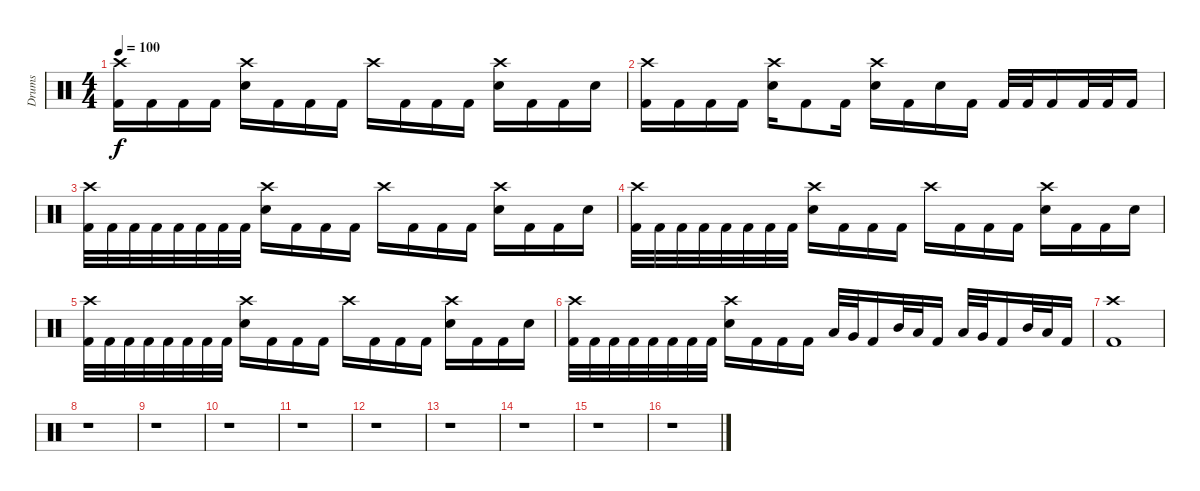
\track ("Drums" "Drums") {instrument percussion}
\staff {score}
\articulation defaults
\ts (4 4)
\tempo 100
\clef neutral
\ks c
("Crash high (hit)" "Kick (hit) 2").16{dy f} "Kick (hit) 2".16 "Kick (hit) 2".16 "Kick (hit) 2".16 ("Crash high (hit)" "Electric Snare (hit)").16 "Kick (hit) 2".16 "Kick (hit) 2".16 "Kick (hit) 2".16 "Crash high (hit)".16 "Kick (hit) 2".16 "Kick (hit) 2".16 "Kick (hit) 2".16 ("Crash high (hit)" "Electric Snare (hit)").16 "Kick (hit) 2".16 "Kick (hit) 2".16 "Electric Snare (hit)".16 |
("Crash high (hit)" "Kick (hit) 2").16 "Kick (hit) 2".16 "Kick (hit) 2".16 "Kick (hit) 2".16 ("Crash high (hit)" "Electric Snare (hit)").16 "Kick (hit) 2".8 "Kick (hit) 2".16 ("Crash high (hit)" "Electric Snare (hit)").16 "Kick (hit) 2".16 "Electric Snare (hit)".16 "Kick (hit) 2".16 "Kick (hit) 2".32 "Kick (hit) 2".32 "Kick (hit) 2".16 "Kick (hit) 2".32 "Kick (hit) 2".32 "Kick (hit) 2".16 |
("Crash high (hit)" "Kick (hit) 2").32 "Kick (hit) 2".32 "Kick (hit) 2".32 "Kick (hit) 2".32 "Kick (hit) 2".32 "Kick (hit) 2".32 "Kick (hit) 2".32 "Kick (hit) 2".32 ("Crash high (hit)" "Electric Snare (hit)").16 "Kick (hit) 2".16 "Kick (hit) 2".16 "Kick (hit) 2".16 "Crash high (hit)".16 "Kick (hit) 2".16 "Kick (hit) 2".16 "Kick (hit) 2".16 ("Crash high (hit)" "Electric Snare (hit)").16 "Kick (hit) 2".16 "Kick (hit) 2".16 "Electric Snare (hit)".16 |
("Crash high (hit)" "Kick (hit) 2").32 "Kick (hit) 2".32 "Kick (hit) 2".32 "Kick (hit) 2".32 "Kick (hit) 2".32 "Kick (hit) 2".32 "Kick (hit) 2".32 "Kick (hit) 2".32 ("Crash high (hit)" "Electric Snare (hit)").16 "Kick (hit) 2".16 "Kick (hit) 2".16 "Kick (hit) 2".16 "Crash high (hit)".16 "Kick (hit) 2".16 "Kick (hit) 2".16 "Kick (hit) 2".16 ("Crash high (hit)" "Electric Snare (hit)").16 "Kick (hit) 2".16 "Kick (hit) 2".16 "Electric Snare (hit)".16 |
("Crash high (hit)" "Kick (hit) 2").32 "Kick (hit) 2".32 "Kick (hit) 2".32 "Kick (hit) 2".32 "Kick (hit) 2".32 "Kick (hit) 2".32 "Kick (hit) 2".32 "Kick (hit) 2".32 ("Crash high (hit)" "Electric Snare (hit)").16 "Kick (hit) 2".16 "Kick (hit) 2".16 "Kick (hit) 2".16 "Crash high (hit)".16 "Kick (hit) 2".16 "Kick (hit) 2".16 "Kick (hit) 2".16 ("Crash high (hit)" "Electric Snare (hit)").16 "Kick (hit) 2".16 "Kick (hit) 2".16 "Electric Snare (hit)".16 |
("Crash high (hit)" "Kick (hit) 2").32 "Kick (hit) 2".32 "Kick (hit) 2".32 "Kick (hit) 2".32 "Kick (hit) 2".32 "Kick (hit) 2".32 "Kick (hit) 2".32 "Kick (hit) 2".32 ("Crash high (hit)" "Electric Snare (hit)").16 "Kick (hit) 2".16 "Kick (hit) 2".16 "Kick (hit) 2".16 "Low Tom (hit)".32 "Very Low Tom (hit)".32 "Kick (hit) 2".16 "Mid Tom (hit)".32 "Low Tom (hit)".32 "Kick (hit) 2".16 "Low Tom (hit)".32 "Very Low Tom (hit)".32 "Kick (hit) 2".16 "Mid Tom (hit)".32 "Low Tom (hit)".32 "Kick (hit) 2".16 |
("Crash high (hit)" "Kick (hit) 2").1 |
r.1 |
r.1 |
r.1 |
r.1 |
r.1 |
r.1 |
r.1 |
r.1 |
r.1
